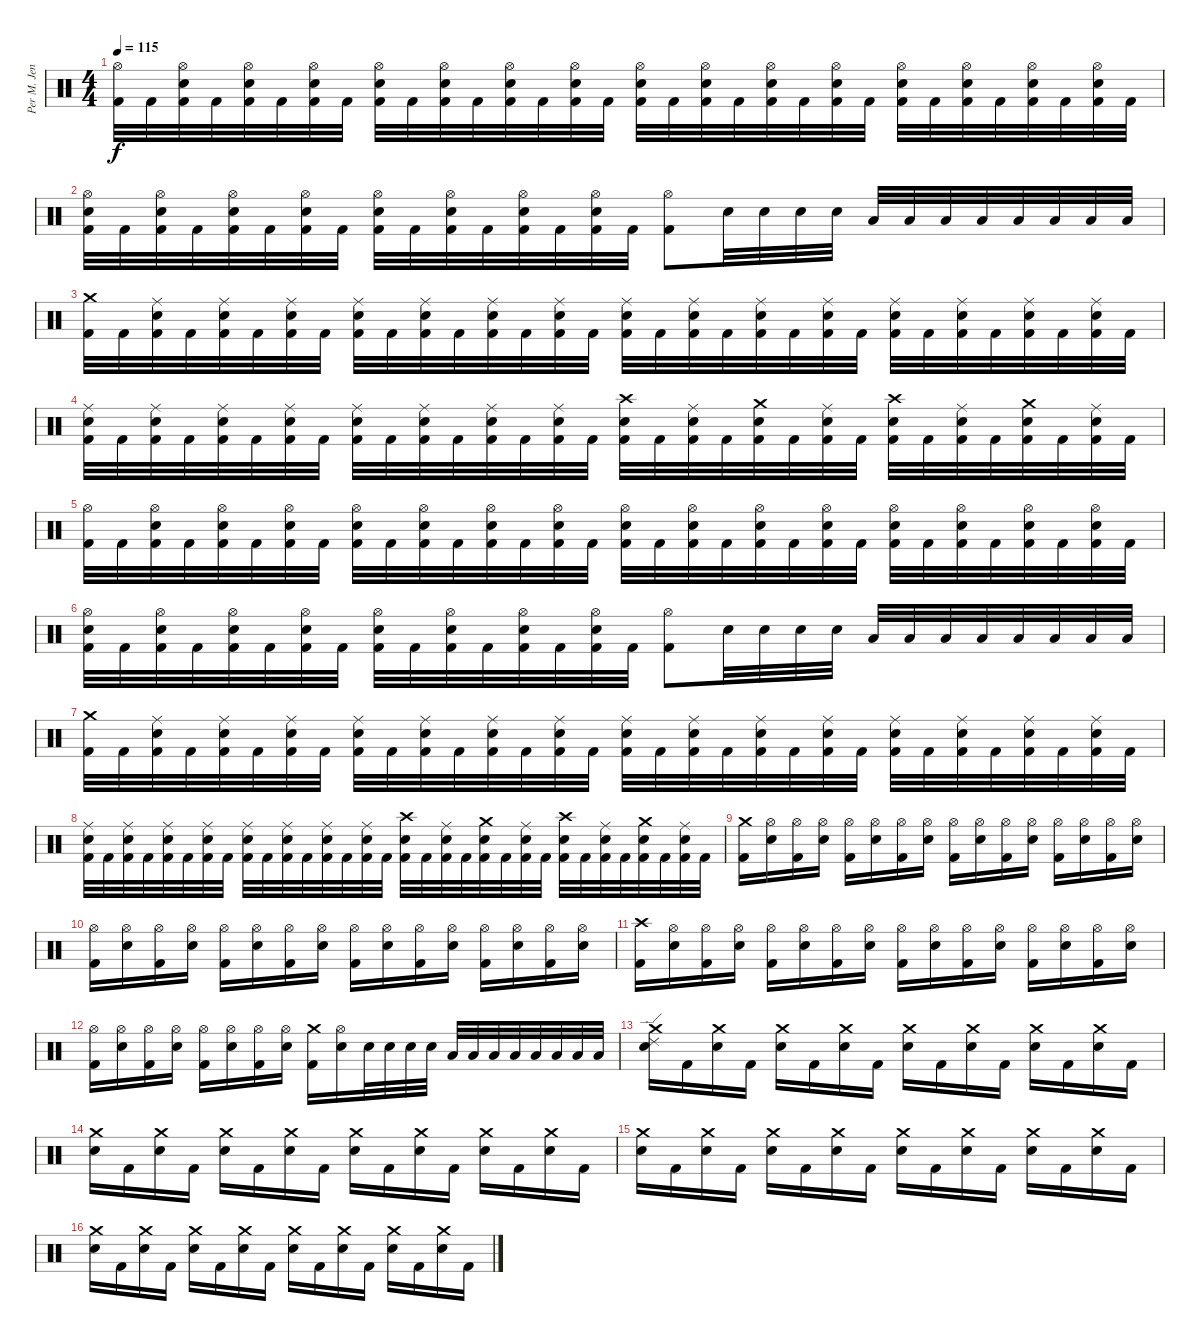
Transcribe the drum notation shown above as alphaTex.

\track ("Per M. Jensen (Ex-Drums)" "Per M. Jen") {instrument percussion}
\staff {score}
\articulation defaults
\ts (4 4)
\tempo 115
\clef neutral
\ks c
("Hi-Hat (open)" "Kick (hit) 2").32{dy f} "Kick (hit) 2".32 ("Hi-Hat (open)" "Snare (hit) 2" "Kick (hit) 2").32 "Kick (hit) 2".32 ("Hi-Hat (open)" "Snare (hit) 2" "Kick (hit) 2").32 "Kick (hit) 2".32 ("Hi-Hat (open)" "Snare (hit) 2" "Kick (hit) 2").32 "Kick (hit) 2".32 ("Hi-Hat (open)" "Snare (hit) 2" "Kick (hit) 2").32 "Kick (hit) 2".32 ("Hi-Hat (open)" "Snare (hit) 2" "Kick (hit) 2").32 "Kick (hit) 2".32 ("Hi-Hat (open)" "Snare (hit) 2" "Kick (hit) 2").32 "Kick (hit) 2".32 ("Hi-Hat (open)" "Snare (hit) 2" "Kick (hit) 2").32 "Kick (hit) 2".32 ("Hi-Hat (open)" "Snare (hit) 2" "Kick (hit) 2").32 "Kick (hit) 2".32 ("Hi-Hat (open)" "Snare (hit) 2" "Kick (hit) 2").32 "Kick (hit) 2".32 ("Hi-Hat (open)" "Snare (hit) 2" "Kick (hit) 2").32 "Kick (hit) 2".32 ("Hi-Hat (open)" "Snare (hit) 2" "Kick (hit) 2").32 "Kick (hit) 2".32 ("Hi-Hat (open)" "Snare (hit) 2" "Kick (hit) 2").32 "Kick (hit) 2".32 ("Hi-Hat (open)" "Snare (hit) 2" "Kick (hit) 2").32 "Kick (hit) 2".32 ("Hi-Hat (open)" "Snare (hit) 2" "Kick (hit) 2").32 "Kick (hit) 2".32 ("Hi-Hat (open)" "Snare (hit) 2" "Kick (hit) 2").32 "Kick (hit) 2".32 |
("Hi-Hat (open)" "Snare (hit) 2" "Kick (hit) 2").32 "Kick (hit) 2".32 ("Hi-Hat (open)" "Snare (hit) 2" "Kick (hit) 2").32 "Kick (hit) 2".32 ("Hi-Hat (open)" "Snare (hit) 2" "Kick (hit) 2").32 "Kick (hit) 2".32 ("Hi-Hat (open)" "Snare (hit) 2" "Kick (hit) 2").32 "Kick (hit) 2".32 ("Hi-Hat (open)" "Snare (hit) 2" "Kick (hit) 2").32 "Kick (hit) 2".32 ("Hi-Hat (open)" "Snare (hit) 2" "Kick (hit) 2").32 "Kick (hit) 2".32 ("Hi-Hat (open)" "Snare (hit) 2" "Kick (hit) 2").32 "Kick (hit) 2".32 ("Hi-Hat (open)" "Snare (hit) 2" "Kick (hit) 2").32 "Kick (hit) 2".32 ("Hi-Hat (open)" "Kick (hit) 2").8 "Snare (hit) 2".32 "Snare (hit) 2".32 "Snare (hit) 2".32 "Snare (hit) 2".32 "Low Tom (hit)".32 "Low Tom (hit)".32 "Low Tom (hit)".32 "Low Tom (hit)".32 "Low Floor Tom (hit)".32 "Low Floor Tom (hit)".32 "Low Floor Tom (hit)".32 "Low Floor Tom (hit)".32 |
("Crash medium (hit)" "Kick (hit) 2").32 "Kick (hit) 2".32 ("Ride (middle)" "Snare (hit) 2" "Kick (hit) 2").32 "Kick (hit) 2".32 ("Ride (middle)" "Snare (hit) 2" "Kick (hit) 2").32 "Kick (hit) 2".32 ("Ride (middle)" "Snare (hit) 2" "Kick (hit) 2").32 "Kick (hit) 2".32 ("Ride (middle)" "Snare (hit) 2" "Kick (hit) 2").32 "Kick (hit) 2".32 ("Ride (middle)" "Snare (hit) 2" "Kick (hit) 2").32 "Kick (hit) 2".32 ("Ride (middle)" "Snare (hit) 2" "Kick (hit) 2").32 "Kick (hit) 2".32 ("Ride (middle)" "Snare (hit) 2" "Kick (hit) 2").32 "Kick (hit) 2".32 ("Ride (middle)" "Snare (hit) 2" "Kick (hit) 2").32 "Kick (hit) 2".32 ("Ride (middle)" "Snare (hit) 2" "Kick (hit) 2").32 "Kick (hit) 2".32 ("Ride (middle)" "Snare (hit) 2" "Kick (hit) 2").32 "Kick (hit) 2".32 ("Ride (middle)" "Snare (hit) 2" "Kick (hit) 2").32 "Kick (hit) 2".32 ("Ride (middle)" "Snare (hit) 2" "Kick (hit) 2").32 "Kick (hit) 2".32 ("Ride (middle)" "Snare (hit) 2" "Kick (hit) 2").32 "Kick (hit) 2".32 ("Ride (middle)" "Snare (hit) 2" "Kick (hit) 2").32 "Kick (hit) 2".32 ("Ride (middle)" "Snare (hit) 2" "Kick (hit) 2").32 "Kick (hit) 2".32 |
("Ride (middle)" "Snare (hit) 2" "Kick (hit) 2").32 "Kick (hit) 2".32 ("Ride (middle)" "Snare (hit) 2" "Kick (hit) 2").32 "Kick (hit) 2".32 ("Ride (middle)" "Snare (hit) 2" "Kick (hit) 2").32 "Kick (hit) 2".32 ("Ride (middle)" "Snare (hit) 2" "Kick (hit) 2").32 "Kick (hit) 2".32 ("Ride (middle)" "Snare (hit) 2" "Kick (hit) 2").32 "Kick (hit) 2".32 ("Ride (middle)" "Snare (hit) 2" "Kick (hit) 2").32 "Kick (hit) 2".32 ("Ride (middle)" "Snare (hit) 2" "Kick (hit) 2").32 "Kick (hit) 2".32 ("Ride (middle)" "Snare (hit) 2" "Kick (hit) 2").32 "Kick (hit) 2".32 ("Crash high (hit)" "Snare (hit) 2" "Kick (hit) 2").32 "Kick (hit) 2".32 ("Ride (middle)" "Snare (hit) 2" "Kick (hit) 2").32 "Kick (hit) 2".32 ("Crash medium (hit)" "Snare (hit) 2" "Kick (hit) 2").32 "Kick (hit) 2".32 ("Ride (middle)" "Snare (hit) 2" "Kick (hit) 2").32 "Kick (hit) 2".32 ("Crash high (hit)" "Snare (hit) 2" "Kick (hit) 2").32 "Kick (hit) 2".32 ("Ride (middle)" "Snare (hit) 2" "Kick (hit) 2").32 "Kick (hit) 2".32 ("Crash medium (hit)" "Snare (hit) 2" "Kick (hit) 2").32 "Kick (hit) 2".32 ("Ride (middle)" "Snare (hit) 2" "Kick (hit) 2").32 "Kick (hit) 2".32 |
("Hi-Hat (open)" "Kick (hit) 2").32 "Kick (hit) 2".32 ("Hi-Hat (open)" "Snare (hit) 2" "Kick (hit) 2").32 "Kick (hit) 2".32 ("Hi-Hat (open)" "Snare (hit) 2" "Kick (hit) 2").32 "Kick (hit) 2".32 ("Hi-Hat (open)" "Snare (hit) 2" "Kick (hit) 2").32 "Kick (hit) 2".32 ("Hi-Hat (open)" "Snare (hit) 2" "Kick (hit) 2").32 "Kick (hit) 2".32 ("Hi-Hat (open)" "Snare (hit) 2" "Kick (hit) 2").32 "Kick (hit) 2".32 ("Hi-Hat (open)" "Snare (hit) 2" "Kick (hit) 2").32 "Kick (hit) 2".32 ("Hi-Hat (open)" "Snare (hit) 2" "Kick (hit) 2").32 "Kick (hit) 2".32 ("Hi-Hat (open)" "Snare (hit) 2" "Kick (hit) 2").32 "Kick (hit) 2".32 ("Hi-Hat (open)" "Snare (hit) 2" "Kick (hit) 2").32 "Kick (hit) 2".32 ("Hi-Hat (open)" "Snare (hit) 2" "Kick (hit) 2").32 "Kick (hit) 2".32 ("Hi-Hat (open)" "Snare (hit) 2" "Kick (hit) 2").32 "Kick (hit) 2".32 ("Hi-Hat (open)" "Snare (hit) 2" "Kick (hit) 2").32 "Kick (hit) 2".32 ("Hi-Hat (open)" "Snare (hit) 2" "Kick (hit) 2").32 "Kick (hit) 2".32 ("Hi-Hat (open)" "Snare (hit) 2" "Kick (hit) 2").32 "Kick (hit) 2".32 ("Hi-Hat (open)" "Snare (hit) 2" "Kick (hit) 2").32 "Kick (hit) 2".32 |
("Hi-Hat (open)" "Snare (hit) 2" "Kick (hit) 2").32 "Kick (hit) 2".32 ("Hi-Hat (open)" "Snare (hit) 2" "Kick (hit) 2").32 "Kick (hit) 2".32 ("Hi-Hat (open)" "Snare (hit) 2" "Kick (hit) 2").32 "Kick (hit) 2".32 ("Hi-Hat (open)" "Snare (hit) 2" "Kick (hit) 2").32 "Kick (hit) 2".32 ("Hi-Hat (open)" "Snare (hit) 2" "Kick (hit) 2").32 "Kick (hit) 2".32 ("Hi-Hat (open)" "Snare (hit) 2" "Kick (hit) 2").32 "Kick (hit) 2".32 ("Hi-Hat (open)" "Snare (hit) 2" "Kick (hit) 2").32 "Kick (hit) 2".32 ("Hi-Hat (open)" "Snare (hit) 2" "Kick (hit) 2").32 "Kick (hit) 2".32 ("Hi-Hat (open)" "Kick (hit) 2").8 "Snare (hit) 2".32 "Snare (hit) 2".32 "Snare (hit) 2".32 "Snare (hit) 2".32 "Low Tom (hit)".32 "Low Tom (hit)".32 "Low Tom (hit)".32 "Low Tom (hit)".32 "Low Floor Tom (hit)".32 "Low Floor Tom (hit)".32 "Low Floor Tom (hit)".32 "Low Floor Tom (hit)".32 |
("Crash medium (hit)" "Kick (hit) 2").32 "Kick (hit) 2".32 ("Ride (middle)" "Snare (hit) 2" "Kick (hit) 2").32 "Kick (hit) 2".32 ("Ride (middle)" "Snare (hit) 2" "Kick (hit) 2").32 "Kick (hit) 2".32 ("Ride (middle)" "Snare (hit) 2" "Kick (hit) 2").32 "Kick (hit) 2".32 ("Ride (middle)" "Snare (hit) 2" "Kick (hit) 2").32 "Kick (hit) 2".32 ("Ride (middle)" "Snare (hit) 2" "Kick (hit) 2").32 "Kick (hit) 2".32 ("Ride (middle)" "Snare (hit) 2" "Kick (hit) 2").32 "Kick (hit) 2".32 ("Ride (middle)" "Snare (hit) 2" "Kick (hit) 2").32 "Kick (hit) 2".32 ("Ride (middle)" "Snare (hit) 2" "Kick (hit) 2").32 "Kick (hit) 2".32 ("Ride (middle)" "Snare (hit) 2" "Kick (hit) 2").32 "Kick (hit) 2".32 ("Ride (middle)" "Snare (hit) 2" "Kick (hit) 2").32 "Kick (hit) 2".32 ("Ride (middle)" "Snare (hit) 2" "Kick (hit) 2").32 "Kick (hit) 2".32 ("Ride (middle)" "Snare (hit) 2" "Kick (hit) 2").32 "Kick (hit) 2".32 ("Ride (middle)" "Snare (hit) 2" "Kick (hit) 2").32 "Kick (hit) 2".32 ("Ride (middle)" "Snare (hit) 2" "Kick (hit) 2").32 "Kick (hit) 2".32 ("Ride (middle)" "Snare (hit) 2" "Kick (hit) 2").32 "Kick (hit) 2".32 |
("Ride (middle)" "Snare (hit) 2" "Kick (hit) 2").32 "Kick (hit) 2".32 ("Ride (middle)" "Snare (hit) 2" "Kick (hit) 2").32 "Kick (hit) 2".32 ("Ride (middle)" "Snare (hit) 2" "Kick (hit) 2").32 "Kick (hit) 2".32 ("Ride (middle)" "Snare (hit) 2" "Kick (hit) 2").32 "Kick (hit) 2".32 ("Ride (middle)" "Snare (hit) 2" "Kick (hit) 2").32 "Kick (hit) 2".32 ("Ride (middle)" "Snare (hit) 2" "Kick (hit) 2").32 "Kick (hit) 2".32 ("Ride (middle)" "Snare (hit) 2" "Kick (hit) 2").32 "Kick (hit) 2".32 ("Ride (middle)" "Snare (hit) 2" "Kick (hit) 2").32 "Kick (hit) 2".32 ("Crash high (hit)" "Snare (hit) 2" "Kick (hit) 2").32 "Kick (hit) 2".32 ("Ride (middle)" "Snare (hit) 2" "Kick (hit) 2").32 "Kick (hit) 2".32 ("Crash medium (hit)" "Snare (hit) 2" "Kick (hit) 2").32 "Kick (hit) 2".32 ("Ride (middle)" "Snare (hit) 2" "Kick (hit) 2").32 "Kick (hit) 2".32 ("Crash high (hit)" "Snare (hit) 2" "Kick (hit) 2").32 "Kick (hit) 2".32 ("Ride (middle)" "Snare (hit) 2" "Kick (hit) 2").32 "Kick (hit) 2".32 ("Crash medium (hit)" "Snare (hit) 2" "Kick (hit) 2").32 "Kick (hit) 2".32 ("Ride (middle)" "Snare (hit) 2" "Kick (hit) 2").32 "Kick (hit) 2".32 |
("Crash medium (hit)" "Kick (hit) 2").16 ("Hi-Hat (open)" "Snare (hit) 2").16 ("Hi-Hat (open)" "Kick (hit) 2").16 ("Hi-Hat (open)" "Snare (hit) 2").16 ("Hi-Hat (open)" "Kick (hit) 2").16 ("Hi-Hat (open)" "Snare (hit) 2").16 ("Hi-Hat (open)" "Kick (hit) 2").16 ("Hi-Hat (open)" "Snare (hit) 2").16 ("Hi-Hat (open)" "Kick (hit) 2").16 ("Hi-Hat (open)" "Snare (hit) 2").16 ("Hi-Hat (open)" "Kick (hit) 2").16 ("Hi-Hat (open)" "Snare (hit) 2").16 ("Hi-Hat (open)" "Kick (hit) 2").16 ("Hi-Hat (open)" "Snare (hit) 2").16 ("Hi-Hat (open)" "Kick (hit) 2").16 ("Hi-Hat (open)" "Snare (hit) 2").16 |
("Hi-Hat (open)" "Kick (hit) 2").16 ("Hi-Hat (open)" "Snare (hit) 2").16 ("Hi-Hat (open)" "Kick (hit) 2").16 ("Hi-Hat (open)" "Snare (hit) 2").16 ("Hi-Hat (open)" "Kick (hit) 2").16 ("Hi-Hat (open)" "Snare (hit) 2").16 ("Hi-Hat (open)" "Kick (hit) 2").16 ("Hi-Hat (open)" "Snare (hit) 2").16 ("Hi-Hat (open)" "Kick (hit) 2").16 ("Hi-Hat (open)" "Snare (hit) 2").16 ("Hi-Hat (open)" "Kick (hit) 2").16 ("Hi-Hat (open)" "Snare (hit) 2").16 ("Hi-Hat (open)" "Kick (hit) 2").16 ("Hi-Hat (open)" "Snare (hit) 2").16 ("Hi-Hat (open)" "Kick (hit) 2").16 ("Hi-Hat (open)" "Snare (hit) 2").16 |
("Crash high (hit)" "Kick (hit) 2").16 ("Hi-Hat (open)" "Snare (hit) 2").16 ("Hi-Hat (open)" "Kick (hit) 2").16 ("Hi-Hat (open)" "Snare (hit) 2").16 ("Hi-Hat (open)" "Kick (hit) 2").16 ("Hi-Hat (open)" "Snare (hit) 2").16 ("Hi-Hat (open)" "Kick (hit) 2").16 ("Hi-Hat (open)" "Snare (hit) 2").16 ("Hi-Hat (open)" "Kick (hit) 2").16 ("Hi-Hat (open)" "Snare (hit) 2").16 ("Hi-Hat (open)" "Kick (hit) 2").16 ("Hi-Hat (open)" "Snare (hit) 2").16 ("Hi-Hat (open)" "Kick (hit) 2").16 ("Hi-Hat (open)" "Snare (hit) 2").16 ("Hi-Hat (open)" "Kick (hit) 2").16 ("Hi-Hat (open)" "Snare (hit) 2").16 |
("Hi-Hat (open)" "Kick (hit) 2").16 ("Hi-Hat (open)" "Snare (hit) 2").16 ("Hi-Hat (open)" "Kick (hit) 2").16 ("Hi-Hat (open)" "Snare (hit) 2").16 ("Hi-Hat (open)" "Kick (hit) 2").16 ("Hi-Hat (open)" "Snare (hit) 2").16 ("Hi-Hat (open)" "Kick (hit) 2").16 ("Hi-Hat (open)" "Snare (hit) 2").16 ("Crash medium (hit)" "Kick (hit) 2").16 ("Hi-Hat (open)" "Snare (hit) 2").16 "Snare (hit) 2".32 "Snare (hit) 2".32 "Snare (hit) 2".32 "Snare (hit) 2".32 "Low Tom (hit)".32 "Low Tom (hit)".32 "Low Tom (hit)".32 "Low Tom (hit)".32 "Low Floor Tom (hit)".32 "Low Floor Tom (hit)".32 "Low Floor Tom (hit)".32 "Low Floor Tom (hit)".32 |
("Crash medium (hit)" "Ride (edge) 2" "Snare (hit) 2").16 "Kick (hit) 2".16 ("Crash medium (hit)" "Snare (hit) 2").16 "Kick (hit) 2".16 ("Crash medium (hit)" "Snare (hit) 2").16 "Kick (hit) 2".16 ("Crash medium (hit)" "Snare (hit) 2").16 "Kick (hit) 2".16 ("Crash medium (hit)" "Snare (hit) 2").16 "Kick (hit) 2".16 ("Crash medium (hit)" "Snare (hit) 2").16 "Kick (hit) 2".16 ("Crash medium (hit)" "Snare (hit) 2").16 "Kick (hit) 2".16 ("Crash medium (hit)" "Snare (hit) 2").16 "Kick (hit) 2".16 |
("Crash medium (hit)" "Snare (hit) 2").16 "Kick (hit) 2".16 ("Crash medium (hit)" "Snare (hit) 2").16 "Kick (hit) 2".16 ("Crash medium (hit)" "Snare (hit) 2").16 "Kick (hit) 2".16 ("Crash medium (hit)" "Snare (hit) 2").16 "Kick (hit) 2".16 ("Crash medium (hit)" "Snare (hit) 2").16 "Kick (hit) 2".16 ("Crash medium (hit)" "Snare (hit) 2").16 "Kick (hit) 2".16 ("Crash medium (hit)" "Snare (hit) 2").16 "Kick (hit) 2".16 ("Crash medium (hit)" "Snare (hit) 2").16 "Kick (hit) 2".16 |
("Crash medium (hit)" "Snare (hit) 2").16 "Kick (hit) 2".16 ("Crash medium (hit)" "Snare (hit) 2").16 "Kick (hit) 2".16 ("Crash medium (hit)" "Snare (hit) 2").16 "Kick (hit) 2".16 ("Crash medium (hit)" "Snare (hit) 2").16 "Kick (hit) 2".16 ("Crash medium (hit)" "Snare (hit) 2").16 "Kick (hit) 2".16 ("Crash medium (hit)" "Snare (hit) 2").16 "Kick (hit) 2".16 ("Crash medium (hit)" "Snare (hit) 2").16 "Kick (hit) 2".16 ("Crash medium (hit)" "Snare (hit) 2").16 "Kick (hit) 2".16 |
("Crash medium (hit)" "Snare (hit) 2").16 "Kick (hit) 2".16 ("Crash medium (hit)" "Snare (hit) 2").16 "Kick (hit) 2".16 ("Crash medium (hit)" "Snare (hit) 2").16 "Kick (hit) 2".16 ("Crash medium (hit)" "Snare (hit) 2").16 "Kick (hit) 2".16 ("Crash medium (hit)" "Snare (hit) 2").16 "Kick (hit) 2".16 ("Crash medium (hit)" "Snare (hit) 2").16 "Kick (hit) 2".16 ("Crash medium (hit)" "Snare (hit) 2").16 "Kick (hit) 2".16 ("Crash medium (hit)" "Snare (hit) 2").16 "Kick (hit) 2".16
